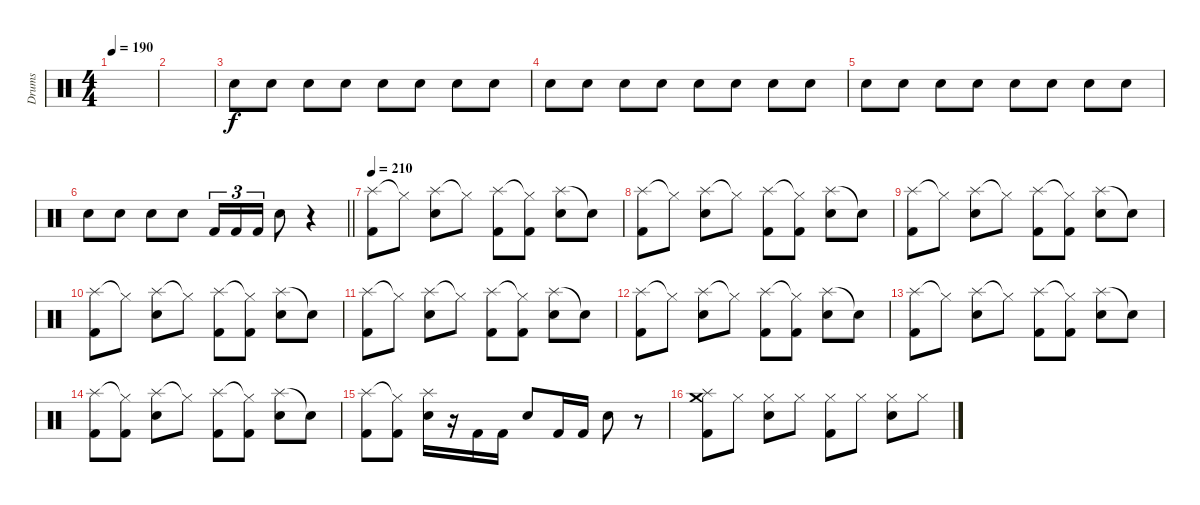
\track ("Drums" "Drums") {instrument percussion}
\staff {score}
\articulation defaults
\ts (4 4)
\tempo 190
\clef neutral
\ks c
|
|
"Electric Snare (hit)".8{volume 4} "Electric Snare (hit)".8{volume 16} "Electric Snare (hit)".8 "Electric Snare (hit)".8 "Electric Snare (hit)".8 "Electric Snare (hit)".8 "Electric Snare (hit)".8 "Electric Snare (hit)".8 |
"Electric Snare (hit)".8 "Electric Snare (hit)".8 "Electric Snare (hit)".8 "Electric Snare (hit)".8 "Electric Snare (hit)".8 "Electric Snare (hit)".8 "Electric Snare (hit)".8 "Electric Snare (hit)".8 |
"Electric Snare (hit)".8 "Electric Snare (hit)".8 "Electric Snare (hit)".8 "Electric Snare (hit)".8 "Electric Snare (hit)".8 "Electric Snare (hit)".8 "Electric Snare (hit)".8 "Electric Snare (hit)".8 |
\barLineRight lightlight "Electric Snare (hit)".8 "Electric Snare (hit)".8 "Electric Snare (hit)".8 "Electric Snare (hit)".8 "Kick (hit) 2".16{tu (3 2)} "Kick (hit) 2".16{tu (3 2)} "Kick (hit) 2".16{tu (3 2)} "Electric Snare (hit)".8
r.4 |
\tempo 210
("Splash (hit)" "Kick (hit) 2").8 "Hi-Hat (closed)"{t}.8 ("Splash (hit)" "Electric Snare (hit)").8 "Hi-Hat (closed)"{t}.8 ("Splash (hit)" "Kick (hit) 2").8 ("Hi-Hat (closed)"{t} "Kick (hit) 2").8 ("Splash (hit)" "Electric Snare (hit)").8 "Snare (hit)"{t}.8 |
("Splash (hit)" "Kick (hit) 2").8 "Hi-Hat (closed)"{t}.8 ("Splash (hit)" "Electric Snare (hit)").8 "Hi-Hat (closed)"{t}.8 ("Splash (hit)" "Kick (hit) 2").8 ("Hi-Hat (closed)"{t} "Kick (hit) 2").8 ("Splash (hit)" "Electric Snare (hit)").8 "Snare (hit)"{t}.8 |
("Splash (hit)" "Kick (hit) 2").8 "Hi-Hat (closed)"{t}.8 ("Splash (hit)" "Electric Snare (hit)").8 "Hi-Hat (closed)"{t}.8 ("Splash (hit)" "Kick (hit) 2").8 ("Hi-Hat (closed)"{t} "Kick (hit) 2").8 ("Splash (hit)" "Electric Snare (hit)").8 "Snare (hit)"{t}.8 |
("Splash (hit)" "Kick (hit) 2").8 "Hi-Hat (closed)"{t}.8 ("Splash (hit)" "Electric Snare (hit)").8 "Hi-Hat (closed)"{t}.8 ("Splash (hit)" "Kick (hit) 2").8 ("Hi-Hat (closed)"{t} "Kick (hit) 2").8 ("Splash (hit)" "Electric Snare (hit)").8 "Snare (hit)"{t}.8 |
("Splash (hit)" "Kick (hit) 2").8 "Hi-Hat (closed)"{t}.8 ("Splash (hit)" "Electric Snare (hit)").8 "Hi-Hat (closed)"{t}.8 ("Splash (hit)" "Kick (hit) 2").8 ("Hi-Hat (closed)"{t} "Kick (hit) 2").8 ("Splash (hit)" "Electric Snare (hit)").8 "Snare (hit)"{t}.8 |
("Splash (hit)" "Kick (hit) 2").8 "Hi-Hat (closed)"{t}.8 ("Splash (hit)" "Electric Snare (hit)").8 "Hi-Hat (closed)"{t}.8 ("Splash (hit)" "Kick (hit) 2").8 ("Hi-Hat (closed)"{t} "Kick (hit) 2").8 ("Splash (hit)" "Electric Snare (hit)").8 "Snare (hit)"{t}.8 |
("Splash (hit)" "Kick (hit) 2").8 "Hi-Hat (closed)"{t}.8 ("Splash (hit)" "Electric Snare (hit)").8 "Hi-Hat (closed)"{t}.8 ("Splash (hit)" "Kick (hit) 2").8 ("Hi-Hat (closed)"{t} "Kick (hit) 2").8 ("Splash (hit)" "Electric Snare (hit)").8 "Snare (hit)"{t}.8 |
("Splash (hit)" "Kick (hit) 2").8 ("Hi-Hat (closed)"{t} "Kick (hit) 2").8 ("Splash (hit)" "Electric Snare (hit)").8 "Hi-Hat (closed)"{t}.8 ("Splash (hit)" "Kick (hit) 2").8 ("Hi-Hat (closed)"{t} "Kick (hit) 2").8 ("Splash (hit)" "Electric Snare (hit)").8 "Snare (hit)"{t}.8 |
("Splash (hit)" "Kick (hit) 2").8 ("Hi-Hat (closed)"{t} "Kick (hit) 2").8 ("Splash (hit)" "Electric Snare (hit)").16 r.16 "Kick (hit) 2".16 "Kick (hit) 2".16 "Electric Snare (hit)".8 "Kick (hit) 2".16 "Kick (hit) 2".16 "Electric Snare (hit)".8 r.8 |
("Splash (hit)" "Crash medium (hit)" "Kick (hit) 2").8 "Hi-Hat (closed)".8 ("Hi-Hat (closed)" "Electric Snare (hit)").8 "Hi-Hat (closed)".8 ("Hi-Hat (closed)" "Kick (hit) 2").8 "Hi-Hat (closed)".8 ("Hi-Hat (closed)" "Electric Snare (hit)").8 "Hi-Hat (closed)".8
